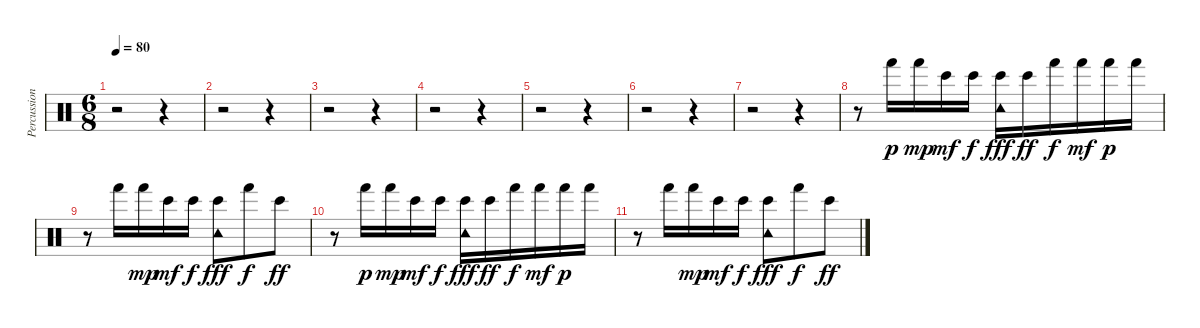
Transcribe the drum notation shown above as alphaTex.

\track ("Percussion" "Percussion") {instrument percussion}
\staff {score}
\articulation defaults
\ts (6 8)
\tempo 80
\clef neutral
\ks c
r.2{dy ff} r.4 |
r.2 r.4 |
r.2 r.4 |
r.2 r.4 |
r.2 r.4 |
r.2 r.4 |
r.2 r.4 |
r.8{volume 0} "Hand (hit)".16{dy p} "Hand (hit)".16{dy mp} "Bongo High (hit)".16{dy mf} "Bongo High (hit)".16{dy f} ("Bongo High (hit)" "Tambourine (hit)").16{dy fff} "Bongo High (hit)".16{dy ff} "Hand (hit)".16{dy f} "Hand (hit)".16{dy mf} "Hand (hit)".16{dy p} "Hand (hit)".16 |
r.8 "Hand (hit)".16 "Hand (hit)".16{dy mp} "Bongo High (hit)".16{dy mf} "Bongo High (hit)".16{dy f} ("Bongo High (hit)" "Tambourine (hit)").8{dy fff} "Hand (hit)".8{dy f} "Bongo High (hit)".8{dy ff} |
r.8 "Hand (hit)".16{dy p} "Hand (hit)".16{dy mp} "Bongo High (hit)".16{dy mf} "Bongo High (hit)".16{dy f} ("Bongo High (hit)" "Tambourine (hit)").16{dy fff} "Bongo High (hit)".16{dy ff} "Hand (hit)".16{dy f} "Hand (hit)".16{dy mf} "Hand (hit)".16{dy p} "Hand (hit)".16 |
r.8 "Hand (hit)".16 "Hand (hit)".16{dy mp} "Bongo High (hit)".16{dy mf} "Bongo High (hit)".16{dy f} ("Bongo High (hit)" "Tambourine (hit)").8{dy fff} "Hand (hit)".8{dy f} "Bongo High (hit)".8{dy ff}
